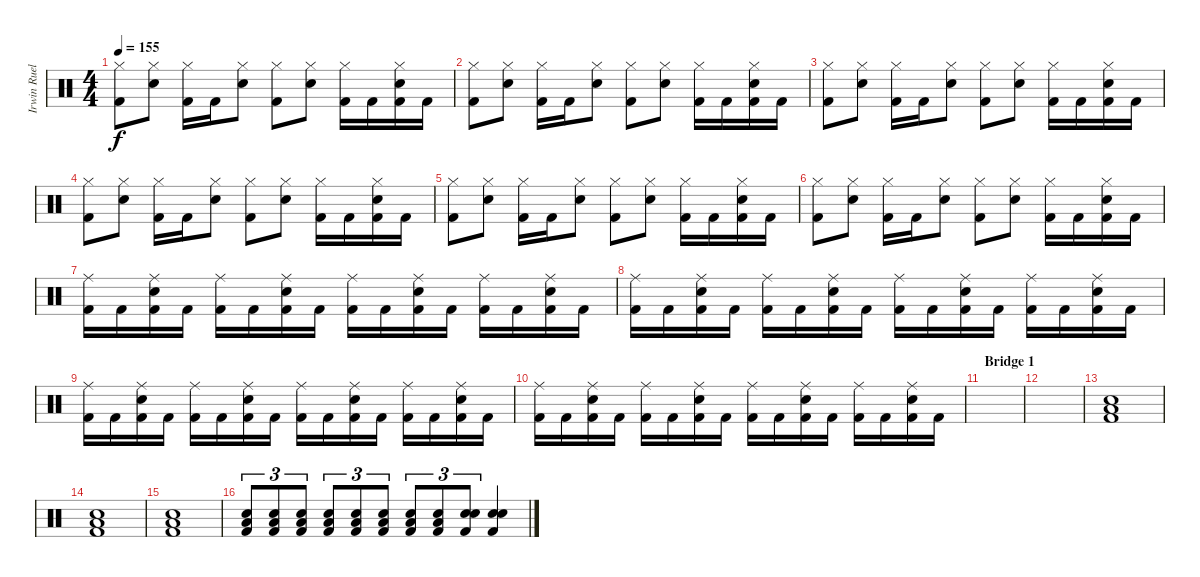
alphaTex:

\track ("Irwin Ruelas" "Irwin Ruel") {instrument percussion}
\staff {score}
\articulation defaults
\ts (4 4)
\tempo 155
\clef neutral
\ks c
("Hi-Hat (closed)" "Kick (hit) 2").8{dy f} ("Hi-Hat (closed)" "Electric Snare (hit)").8 ("Hi-Hat (closed)" "Kick (hit) 2").16 "Kick (hit) 2".16 ("Hi-Hat (closed)" "Electric Snare (hit)").8 ("Hi-Hat (closed)" "Kick (hit) 2").8 ("Hi-Hat (closed)" "Electric Snare (hit)").8 ("Hi-Hat (closed)" "Kick (hit) 2").16 "Kick (hit) 2".16 ("Hi-Hat (closed)" "Electric Snare (hit)" "Kick (hit) 2").16 "Kick (hit) 2".16 |
("Hi-Hat (closed)" "Kick (hit) 2").8 ("Hi-Hat (closed)" "Electric Snare (hit)").8 ("Hi-Hat (closed)" "Kick (hit) 2").16 "Kick (hit) 2".16 ("Hi-Hat (closed)" "Electric Snare (hit)").8 ("Hi-Hat (closed)" "Kick (hit) 2").8 ("Hi-Hat (closed)" "Electric Snare (hit)").8 ("Hi-Hat (closed)" "Kick (hit) 2").16 "Kick (hit) 2".16 ("Hi-Hat (closed)" "Electric Snare (hit)" "Kick (hit) 2").16 "Kick (hit) 2".16 |
("Hi-Hat (closed)" "Kick (hit) 2").8 ("Hi-Hat (closed)" "Electric Snare (hit)").8 ("Hi-Hat (closed)" "Kick (hit) 2").16 "Kick (hit) 2".16 ("Hi-Hat (closed)" "Electric Snare (hit)").8 ("Hi-Hat (closed)" "Kick (hit) 2").8 ("Hi-Hat (closed)" "Electric Snare (hit)").8 ("Hi-Hat (closed)" "Kick (hit) 2").16 "Kick (hit) 2".16 ("Hi-Hat (closed)" "Electric Snare (hit)" "Kick (hit) 2").16 "Kick (hit) 2".16 |
("Hi-Hat (closed)" "Kick (hit) 2").8 ("Hi-Hat (closed)" "Electric Snare (hit)").8 ("Hi-Hat (closed)" "Kick (hit) 2").16 "Kick (hit) 2".16 ("Hi-Hat (closed)" "Electric Snare (hit)").8 ("Hi-Hat (closed)" "Kick (hit) 2").8 ("Hi-Hat (closed)" "Electric Snare (hit)").8 ("Hi-Hat (closed)" "Kick (hit) 2").16 "Kick (hit) 2".16 ("Hi-Hat (closed)" "Electric Snare (hit)" "Kick (hit) 2").16 "Kick (hit) 2".16 |
("Hi-Hat (closed)" "Kick (hit) 2").8 ("Hi-Hat (closed)" "Electric Snare (hit)").8 ("Hi-Hat (closed)" "Kick (hit) 2").16 "Kick (hit) 2".16 ("Hi-Hat (closed)" "Electric Snare (hit)").8 ("Hi-Hat (closed)" "Kick (hit) 2").8 ("Hi-Hat (closed)" "Electric Snare (hit)").8 ("Hi-Hat (closed)" "Kick (hit) 2").16 "Kick (hit) 2".16 ("Hi-Hat (closed)" "Electric Snare (hit)" "Kick (hit) 2").16 "Kick (hit) 2".16 |
("Hi-Hat (closed)" "Kick (hit) 2").8 ("Hi-Hat (closed)" "Electric Snare (hit)").8 ("Hi-Hat (closed)" "Kick (hit) 2").16 "Kick (hit) 2".16 ("Hi-Hat (closed)" "Electric Snare (hit)").8 ("Hi-Hat (closed)" "Kick (hit) 2").8 ("Hi-Hat (closed)" "Electric Snare (hit)").8 ("Hi-Hat (closed)" "Kick (hit) 2").16 "Kick (hit) 2".16 ("Hi-Hat (closed)" "Electric Snare (hit)" "Kick (hit) 2").16 "Kick (hit) 2".16 |
("Ride (middle)" "Kick (hit) 2").16 "Kick (hit) 2".16 ("Ride (middle)" "Electric Snare (hit)" "Kick (hit) 2").16 "Kick (hit) 2".16 ("Ride (middle)" "Kick (hit) 2").16 "Kick (hit) 2".16 ("Ride (middle)" "Electric Snare (hit)" "Kick (hit) 2").16 "Kick (hit) 2".16 ("Ride (middle)" "Kick (hit) 2").16 "Kick (hit) 2".16 ("Ride (middle)" "Electric Snare (hit)" "Kick (hit) 2").16 "Kick (hit) 2".16 ("Ride (middle)" "Kick (hit) 2").16 "Kick (hit) 2".16 ("Ride (middle)" "Electric Snare (hit)" "Kick (hit) 2").16 "Kick (hit) 2".16 |
("Ride (middle)" "Kick (hit) 2").16 "Kick (hit) 2".16 ("Ride (middle)" "Electric Snare (hit)" "Kick (hit) 2").16 "Kick (hit) 2".16 ("Ride (middle)" "Kick (hit) 2").16 "Kick (hit) 2".16 ("Ride (middle)" "Electric Snare (hit)" "Kick (hit) 2").16 "Kick (hit) 2".16 ("Ride (middle)" "Kick (hit) 2").16 "Kick (hit) 2".16 ("Ride (middle)" "Electric Snare (hit)" "Kick (hit) 2").16 "Kick (hit) 2".16 ("Ride (middle)" "Kick (hit) 2").16 "Kick (hit) 2".16 ("Ride (middle)" "Electric Snare (hit)" "Kick (hit) 2").16 "Kick (hit) 2".16 |
("Ride (middle)" "Kick (hit) 2").16 "Kick (hit) 2".16 ("Ride (middle)" "Electric Snare (hit)" "Kick (hit) 2").16 "Kick (hit) 2".16 ("Ride (middle)" "Kick (hit) 2").16 "Kick (hit) 2".16 ("Ride (middle)" "Electric Snare (hit)" "Kick (hit) 2").16 "Kick (hit) 2".16 ("Ride (middle)" "Kick (hit) 2").16 "Kick (hit) 2".16 ("Ride (middle)" "Electric Snare (hit)" "Kick (hit) 2").16 "Kick (hit) 2".16 ("Ride (middle)" "Kick (hit) 2").16 "Kick (hit) 2".16 ("Ride (middle)" "Electric Snare (hit)" "Kick (hit) 2").16 "Kick (hit) 2".16 |
("Ride (middle)" "Kick (hit) 2").16 "Kick (hit) 2".16 ("Ride (middle)" "Electric Snare (hit)" "Kick (hit) 2").16 "Kick (hit) 2".16 ("Ride (middle)" "Kick (hit) 2").16 "Kick (hit) 2".16 ("Ride (middle)" "Electric Snare (hit)" "Kick (hit) 2").16 "Kick (hit) 2".16 ("Ride (middle)" "Kick (hit) 2").16 "Kick (hit) 2".16 ("Ride (middle)" "Electric Snare (hit)" "Kick (hit) 2").16 "Kick (hit) 2".16 ("Ride (middle)" "Kick (hit) 2").16 "Kick (hit) 2".16 ("Ride (middle)" "Electric Snare (hit)" "Kick (hit) 2").16 "Kick (hit) 2".16 |
\section ("" "Bridge 1")
|
|
("Electric Snare (hit)" "Kick (hit) 2" "Low Floor Tom (hit)").1 |
("Electric Snare (hit)" "Kick (hit) 2" "Low Floor Tom (hit)").1 |
("Electric Snare (hit)" "Kick (hit) 2" "Low Floor Tom (hit)").1 |
("Electric Snare (hit)" "Low Floor Tom (hit)" "Kick (hit) 2").8{tu (3 2)} ("Electric Snare (hit)" "Low Floor Tom (hit)" "Kick (hit) 2").8{tu (3 2)} ("Electric Snare (hit)" "Low Floor Tom (hit)" "Kick (hit) 2").8{tu (3 2)} ("Electric Snare (hit)" "Low Floor Tom (hit)" "Kick (hit) 2").8{tu (3 2)} ("Electric Snare (hit)" "Low Floor Tom (hit)" "Kick (hit) 2").8{tu (3 2)} ("Electric Snare (hit)" "Low Floor Tom (hit)" "Kick (hit) 2").8{tu (3 2)} ("Electric Snare (hit)" "Low Floor Tom (hit)" "Kick (hit) 2").8{tu (3 2)} ("Electric Snare (hit)" "Low Floor Tom (hit)" "Kick (hit) 2").8{tu (3 2)} ("Electric Snare (hit)" "Electric Snare (hit)" "Kick (hit) 2").8{tu (3 2)} ("Electric Snare (hit)" "Electric Snare (hit)" "Kick (hit) 2").4
